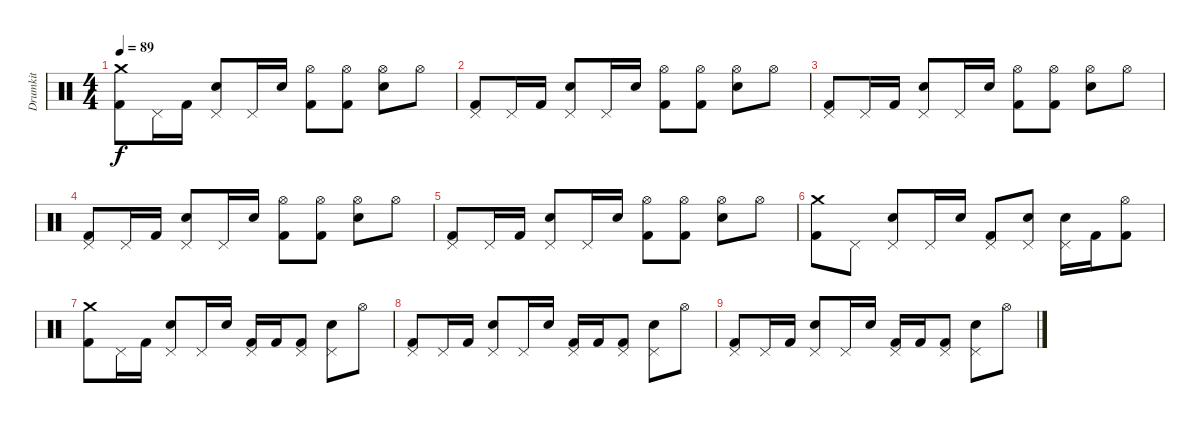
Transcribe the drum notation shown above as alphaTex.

\track ("Drumkit" "Drumkit") {instrument percussion}
\staff {score}
\articulation defaults
\ts (4 4)
\tempo 89
\clef neutral
\ks c
("Crash medium (hit)" "Kick (hit) 2").8{dy f} "Pedal Hi-Hat (hit)".16 "Kick (hit) 2".16 ("Pedal Hi-Hat (hit)" "Snare (hit) 2").8 "Pedal Hi-Hat (hit)".16 "Snare (hit) 2".16 ("Hi-Hat (open)" "Kick (hit) 2").8 ("Hi-Hat (open)" "Kick (hit) 2").8 ("Hi-Hat (open)" "Snare (hit) 2").8 "Hi-Hat (open)".8 |
("Pedal Hi-Hat (hit)" "Kick (hit) 2").8 "Pedal Hi-Hat (hit)".16 "Kick (hit) 2".16 ("Pedal Hi-Hat (hit)" "Snare (hit) 2").8 "Pedal Hi-Hat (hit)".16 "Snare (hit) 2".16 ("Hi-Hat (open)" "Kick (hit) 2").8 ("Hi-Hat (open)" "Kick (hit) 2").8 ("Hi-Hat (open)" "Snare (hit) 2").8 "Hi-Hat (open)".8 |
("Pedal Hi-Hat (hit)" "Kick (hit) 2").8 "Pedal Hi-Hat (hit)".16 "Kick (hit) 2".16 ("Pedal Hi-Hat (hit)" "Snare (hit) 2").8 "Pedal Hi-Hat (hit)".16 "Snare (hit) 2".16 ("Hi-Hat (open)" "Kick (hit) 2").8 ("Hi-Hat (open)" "Kick (hit) 2").8 ("Hi-Hat (open)" "Snare (hit) 2").8 "Hi-Hat (open)".8 |
("Pedal Hi-Hat (hit)" "Kick (hit) 2").8 "Pedal Hi-Hat (hit)".16 "Kick (hit) 2".16 ("Pedal Hi-Hat (hit)" "Snare (hit) 2").8 "Pedal Hi-Hat (hit)".16 "Snare (hit) 2".16 ("Hi-Hat (open)" "Kick (hit) 2").8 ("Hi-Hat (open)" "Kick (hit) 2").8 ("Hi-Hat (open)" "Snare (hit) 2").8 "Hi-Hat (open)".8 |
("Pedal Hi-Hat (hit)" "Kick (hit) 2").8 "Pedal Hi-Hat (hit)".16 "Kick (hit) 2".16 ("Pedal Hi-Hat (hit)" "Snare (hit) 2").8 "Pedal Hi-Hat (hit)".16 "Snare (hit) 2".16 ("Hi-Hat (open)" "Kick (hit) 2").8 ("Hi-Hat (open)" "Kick (hit) 2").8 ("Hi-Hat (open)" "Snare (hit) 2").8 "Hi-Hat (open)".8 |
("Crash medium (hit)" "Kick (hit) 2").8 "Pedal Hi-Hat (hit)".8 ("Pedal Hi-Hat (hit)" "Snare (hit) 2").8 "Pedal Hi-Hat (hit)".16 "Snare (hit) 2".16 ("Pedal Hi-Hat (hit)" "Kick (hit) 2").8 ("Pedal Hi-Hat (hit)" "Snare (hit) 2").8 ("Pedal Hi-Hat (hit)" "Snare (hit) 2").16 "Kick (hit) 2".16 ("Hi-Hat (open)" "Kick (hit) 2").8 |
("Crash medium (hit)" "Kick (hit) 2").8 "Pedal Hi-Hat (hit)".16 "Kick (hit) 2".16 ("Pedal Hi-Hat (hit)" "Snare (hit) 2").8 "Pedal Hi-Hat (hit)".16 "Snare (hit) 2".16 ("Pedal Hi-Hat (hit)" "Kick (hit) 2").16 "Kick (hit) 2".16 ("Pedal Hi-Hat (hit)" "Kick (hit) 2").8 ("Pedal Hi-Hat (hit)" "Snare (hit) 2").8 "Hi-Hat (open)".8 |
("Pedal Hi-Hat (hit)" "Kick (hit) 2").8 "Pedal Hi-Hat (hit)".16 "Kick (hit) 2".16 ("Pedal Hi-Hat (hit)" "Snare (hit) 2").8 "Pedal Hi-Hat (hit)".16 "Snare (hit) 2".16 ("Pedal Hi-Hat (hit)" "Kick (hit) 2").16 "Kick (hit) 2".16 ("Pedal Hi-Hat (hit)" "Kick (hit) 2").8 ("Pedal Hi-Hat (hit)" "Snare (hit) 2").8 "Hi-Hat (open)".8 |
("Pedal Hi-Hat (hit)" "Kick (hit) 2").8 "Pedal Hi-Hat (hit)".16 "Kick (hit) 2".16 ("Pedal Hi-Hat (hit)" "Snare (hit) 2").8 "Pedal Hi-Hat (hit)".16 "Snare (hit) 2".16 ("Pedal Hi-Hat (hit)" "Kick (hit) 2").16 "Kick (hit) 2".16 ("Pedal Hi-Hat (hit)" "Kick (hit) 2").8 ("Pedal Hi-Hat (hit)" "Snare (hit) 2").8 "Hi-Hat (open)".8
